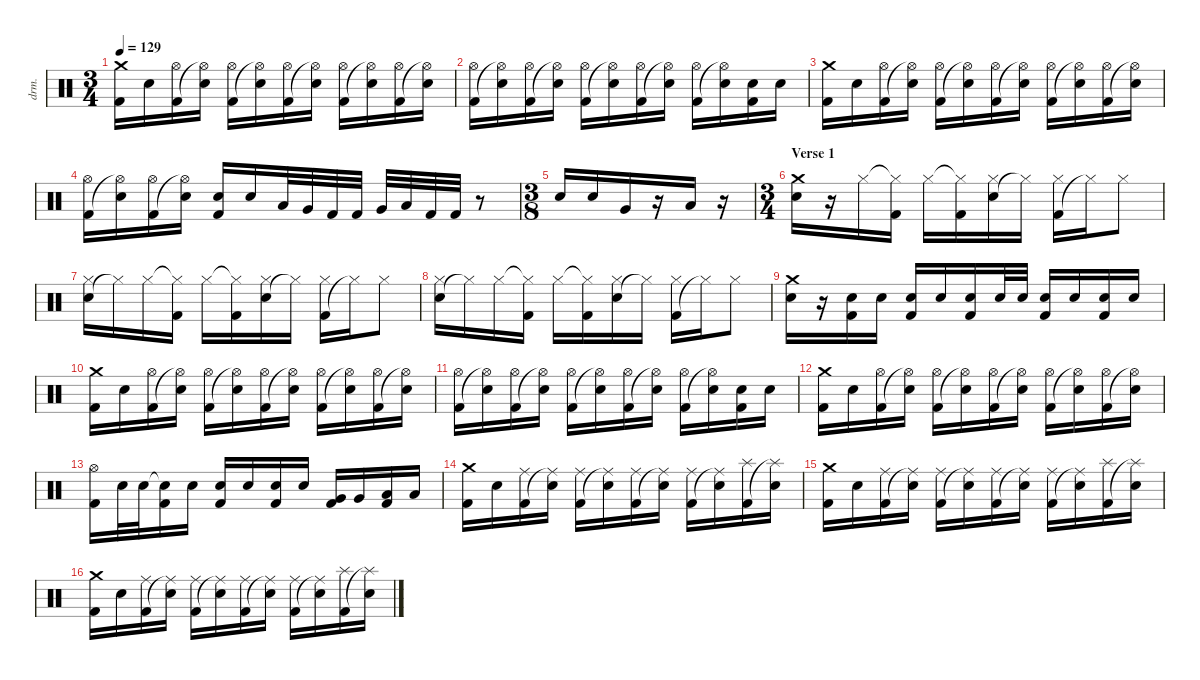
\defaultSystemsLayout 4
\hideDynamics
\bracketExtendMode nobrackets
\otherSystemsTrackNameOrientation horizontal
\track ("Drumkit" "drm.") {instrument percussion}
\staff {score}
\articulation defaults
\ts (3 4)
\tempo 129
\clef neutral
\ks c
("Kick (hit) 2" "Crash medium (hit)").16{dy fff} "Snare (hit) 2".16 ("Kick (hit) 2" "Hi-Hat (open)"{acc #}).16 ("Hi-Hat (open)"{t acc #} "Snare (hit) 2").16 ("Kick (hit) 2" "Hi-Hat (open)"{acc #}).16 ("Hi-Hat (open)"{t acc #} "Snare (hit) 2").16 ("Kick (hit) 2" "Hi-Hat (open)"{acc #}).16 ("Hi-Hat (open)"{t acc #} "Snare (hit) 2").16 ("Kick (hit) 2" "Hi-Hat (open)"{acc #}).16 ("Hi-Hat (open)"{t acc #} "Snare (hit) 2").16 ("Kick (hit) 2" "Hi-Hat (open)"{acc #}).16 ("Hi-Hat (open)"{t acc #} "Snare (hit) 2").16 |
("Kick (hit) 2" "Hi-Hat (open)"{acc #}).16 ("Hi-Hat (open)"{t acc #} "Snare (hit) 2").16 ("Kick (hit) 2" "Hi-Hat (open)"{acc #}).16 ("Hi-Hat (open)"{t acc #} "Snare (hit) 2").16 ("Kick (hit) 2" "Hi-Hat (open)"{acc #}).16 ("Hi-Hat (open)"{t acc #} "Snare (hit) 2").16 ("Kick (hit) 2" "Hi-Hat (open)"{acc #}).16 ("Hi-Hat (open)"{t acc #} "Snare (hit) 2").16 ("Kick (hit) 2" "Hi-Hat (open)"{acc #}).16 ("Hi-Hat (open)"{t acc #} "Snare (hit) 2").16 ("Kick (hit) 2" "Snare (hit) 2").16 "Snare (hit) 2".16 |
("Kick (hit) 2" "Crash medium (hit)").16 "Snare (hit) 2".16 ("Kick (hit) 2" "Hi-Hat (open)"{acc #}).16 ("Hi-Hat (open)"{t acc #} "Snare (hit) 2").16 ("Kick (hit) 2" "Hi-Hat (open)"{acc #}).16 ("Hi-Hat (open)"{t acc #} "Snare (hit) 2").16 ("Kick (hit) 2" "Hi-Hat (open)"{acc #}).16 ("Hi-Hat (open)"{t acc #} "Snare (hit) 2").16 ("Kick (hit) 2" "Hi-Hat (open)"{acc #}).16 ("Hi-Hat (open)"{t acc #} "Snare (hit) 2").16 ("Kick (hit) 2" "Hi-Hat (open)"{acc #}).16 ("Hi-Hat (open)"{t acc #} "Snare (hit) 2").16 |
("Kick (hit) 2" "Hi-Hat (open)"{acc #}).16 ("Hi-Hat (open)"{t acc #} "Snare (hit) 2").16 ("Kick (hit) 2" "Hi-Hat (open)"{acc #}).16 ("Hi-Hat (open)"{t acc #} "Snare (hit) 2").16 ("Kick (hit) 2" "Snare (hit) 2").16 "Snare (hit) 2".16 "Low Tom (hit)".32 "Very Low Tom (hit)".32 "Kick (hit) 2".32 "Kick (hit) 2".32 "Very Low Tom (hit)".32 "Low Floor Tom (hit)".32 "Kick (hit) 2".32 "Kick (hit) 2".32 r.8 |
\ts (3 8)
\beaming (8 3)
"Snare (hit) 2".16 "Snare (hit) 2".16 "Very Low Tom (hit)".16 r.16 "Low Floor Tom (hit)".16 r.16 |
\ts (3 4)
\beaming (8 2 2 2)
\section ("" "Verse 1")
("Snare (hit) 2" "Crash medium (hit)").16 r.16 "Hi-Hat (closed)"{acc #}.16 ("Hi-Hat (closed)"{t acc #} "Kick (hit) 2").16 "Hi-Hat (closed)"{acc #}.16 ("Hi-Hat (closed)"{t acc #} "Kick (hit) 2").16 ("Snare (hit) 2" "Hi-Hat (closed)"{acc #}).16 "Hi-Hat (closed)"{t acc #}.16 ("Kick (hit) 2" "Hi-Hat (closed)"{acc #}).16 "Hi-Hat (closed)"{t acc #}.16 "Hi-Hat (closed)"{acc #}.8 |
("Snare (hit) 2" "Hi-Hat (closed)"{acc #}).16 "Hi-Hat (closed)"{t acc #}.16 "Hi-Hat (closed)"{acc #}.16 ("Hi-Hat (closed)"{t acc #} "Kick (hit) 2").16 "Hi-Hat (closed)"{acc #}.16 ("Hi-Hat (closed)"{t acc #} "Kick (hit) 2").16 ("Snare (hit) 2" "Hi-Hat (closed)"{acc #}).16 "Hi-Hat (closed)"{t acc #}.16 ("Kick (hit) 2" "Hi-Hat (closed)"{acc #}).16 "Hi-Hat (closed)"{t acc #}.16 "Hi-Hat (closed)"{acc #}.8 |
("Snare (hit) 2" "Hi-Hat (closed)"{acc #}).16 "Hi-Hat (closed)"{t acc #}.16 "Hi-Hat (closed)"{acc #}.16 ("Hi-Hat (closed)"{t acc #} "Kick (hit) 2").16 "Hi-Hat (closed)"{acc #}.16 ("Hi-Hat (closed)"{t acc #} "Kick (hit) 2").16 ("Snare (hit) 2" "Hi-Hat (closed)"{acc #}).16 "Hi-Hat (closed)"{t acc #}.16 ("Kick (hit) 2" "Hi-Hat (closed)"{acc #}).16 "Hi-Hat (closed)"{t acc #}.16 "Hi-Hat (closed)"{acc #}.8 |
("Snare (hit) 2" "Crash medium (hit)").16 r.16 ("Kick (hit) 2" "Snare (hit) 2").16 "Snare (hit) 2".16 ("Kick (hit) 2" "Snare (hit) 2").16 "Snare (hit) 2".16 ("Kick (hit) 2" "Snare (hit) 2").16 "Snare (hit) 2".32 "Snare (hit) 2".32 ("Kick (hit) 2" "Snare (hit) 2").16 "Snare (hit) 2".16 ("Kick (hit) 2" "Snare (hit) 2").16 "Snare (hit) 2".16 |
("Kick (hit) 2" "Crash medium (hit)").16 "Snare (hit) 2".16 ("Kick (hit) 2" "Hi-Hat (open)"{acc #}).16 ("Hi-Hat (open)"{t acc #} "Snare (hit) 2").16 ("Kick (hit) 2" "Hi-Hat (open)"{acc #}).16 ("Hi-Hat (open)"{t acc #} "Snare (hit) 2").16 ("Kick (hit) 2" "Hi-Hat (open)"{acc #}).16 ("Hi-Hat (open)"{t acc #} "Snare (hit) 2").16 ("Kick (hit) 2" "Hi-Hat (open)"{acc #}).16 ("Hi-Hat (open)"{t acc #} "Snare (hit) 2").16 ("Kick (hit) 2" "Hi-Hat (open)"{acc #}).16 ("Hi-Hat (open)"{t acc #} "Snare (hit) 2").16 |
("Kick (hit) 2" "Hi-Hat (open)"{acc #}).16 ("Hi-Hat (open)"{t acc #} "Snare (hit) 2").16 ("Kick (hit) 2" "Hi-Hat (open)"{acc #}).16 ("Hi-Hat (open)"{t acc #} "Snare (hit) 2").16 ("Kick (hit) 2" "Hi-Hat (open)"{acc #}).16 ("Hi-Hat (open)"{t acc #} "Snare (hit) 2").16 ("Kick (hit) 2" "Hi-Hat (open)"{acc #}).16 ("Hi-Hat (open)"{t acc #} "Snare (hit) 2").16 ("Kick (hit) 2" "Hi-Hat (open)"{acc #}).16 ("Hi-Hat (open)"{t acc #} "Snare (hit) 2").16 ("Kick (hit) 2" "Snare (hit) 2").16 "Snare (hit) 2".16 |
("Kick (hit) 2" "Crash medium (hit)").16 "Snare (hit) 2".16 ("Kick (hit) 2" "Hi-Hat (open)"{acc #}).16 ("Hi-Hat (open)"{t acc #} "Snare (hit) 2").16 ("Kick (hit) 2" "Hi-Hat (open)"{acc #}).16 ("Hi-Hat (open)"{t acc #} "Snare (hit) 2").16 ("Kick (hit) 2" "Hi-Hat (open)"{acc #}).16 ("Hi-Hat (open)"{t acc #} "Snare (hit) 2").16 ("Kick (hit) 2" "Hi-Hat (open)"{acc #}).16 ("Hi-Hat (open)"{t acc #} "Snare (hit) 2").16 ("Kick (hit) 2" "Hi-Hat (open)"{acc #}).16 ("Hi-Hat (open)"{t acc #} "Snare (hit) 2").16 |
("Kick (hit) 2" "Hi-Hat (open)"{acc #}).16 "Snare (hit) 2".32 "Snare (hit) 2".32 ("Snare (hit) 2"{t} "Kick (hit) 2").16 "Snare (hit) 2".16 ("Kick (hit) 2" "Snare (hit) 2").16 "Snare (hit) 2".16 ("Kick (hit) 2" "Snare (hit) 2").16 "Snare (hit) 2".16 ("Kick (hit) 2" "Very Low Tom (hit)").16 "Very Low Tom (hit)".16 ("Kick (hit) 2" "Low Floor Tom (hit)").16 "Low Floor Tom (hit)".16 |
("Kick (hit) 2" "Crash medium (hit)").16 "Snare (hit) 2".16 ("Kick (hit) 2" "Ride (middle)"{acc #}).16 ("Ride (middle)"{t acc #} "Snare (hit) 2").16 ("Kick (hit) 2" "Ride (middle)"{acc #}).16 ("Ride (middle)"{t acc #} "Snare (hit) 2").16 ("Kick (hit) 2" "Ride (middle)"{acc #}).16 ("Ride (middle)"{t acc #} "Snare (hit) 2").16 ("Kick (hit) 2" "Ride (middle)"{acc #}).16 ("Ride (middle)"{t acc #} "Snare (hit) 2").16 ("Kick (hit) 2" "Splash (hit)").16 ("Splash (hit)"{t} "Snare (hit) 2").16 |
("Kick (hit) 2" "Crash medium (hit)").16 "Snare (hit) 2".16 ("Kick (hit) 2" "Ride (middle)"{acc #}).16 ("Ride (middle)"{t acc #} "Snare (hit) 2").16 ("Kick (hit) 2" "Ride (middle)"{acc #}).16 ("Ride (middle)"{t acc #} "Snare (hit) 2").16 ("Kick (hit) 2" "Ride (middle)"{acc #}).16 ("Ride (middle)"{t acc #} "Snare (hit) 2").16 ("Kick (hit) 2" "Ride (middle)"{acc #}).16 ("Ride (middle)"{t acc #} "Snare (hit) 2").16 ("Kick (hit) 2" "Splash (hit)").16 ("Splash (hit)"{t} "Snare (hit) 2").16 |
("Kick (hit) 2" "Crash medium (hit)").16 "Snare (hit) 2".16 ("Kick (hit) 2" "Ride (middle)"{acc #}).16 ("Ride (middle)"{t acc #} "Snare (hit) 2").16 ("Kick (hit) 2" "Ride (middle)"{acc #}).16 ("Ride (middle)"{t acc #} "Snare (hit) 2").16 ("Kick (hit) 2" "Ride (middle)"{acc #}).16 ("Ride (middle)"{t acc #} "Snare (hit) 2").16 ("Kick (hit) 2" "Ride (middle)"{acc #}).16 ("Ride (middle)"{t acc #} "Snare (hit) 2").16 ("Kick (hit) 2" "Splash (hit)").16 ("Splash (hit)"{t} "Snare (hit) 2").16
